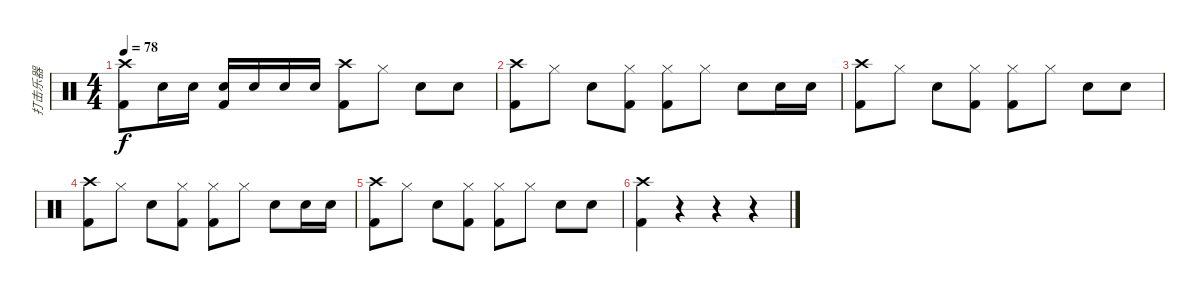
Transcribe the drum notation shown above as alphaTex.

\track ("打击乐器" "打击乐器") {instrument percussion}
\staff {score}
\articulation defaults
\ts (4 4)
\tempo 78
\clef neutral
\ks c
("Crash high (hit)" "Kick (hit) 2").8{dy f} "Snare (hit) 2".16 "Snare (hit) 2".16 ("Electric Snare (hit)" "Kick (hit) 2").16 "Electric Snare (hit)".16 "Electric Snare (hit)".16 "Electric Snare (hit)".16 ("Crash high (hit)" "Kick (hit) 2").8 "Hi-Hat (closed)".8 "Snare (hit) 2".8 "Snare (hit) 2".8 |
("Crash high (hit)" "Kick (hit) 2").8 "Hi-Hat (closed)".8 "Snare (hit) 2".8 ("Hi-Hat (closed)" "Kick (hit) 2").8 ("Hi-Hat (closed)" "Kick (hit) 2").8 "Hi-Hat (closed)".8 "Snare (hit) 2".8 "Snare (hit) 2".16 "Snare (hit) 2".16 |
("Crash high (hit)" "Kick (hit) 2").8 "Hi-Hat (closed)".8 "Snare (hit) 2".8 ("Hi-Hat (closed)" "Kick (hit) 2").8 ("Hi-Hat (closed)" "Kick (hit) 2").8 "Hi-Hat (closed)".8 "Snare (hit) 2".8 "Snare (hit) 2".8 |
("Crash high (hit)" "Kick (hit) 2").8 "Hi-Hat (closed)".8 "Snare (hit) 2".8 ("Hi-Hat (closed)" "Kick (hit) 2").8 ("Hi-Hat (closed)" "Kick (hit) 2").8 "Hi-Hat (closed)".8 "Snare (hit) 2".8 "Snare (hit) 2".16 "Snare (hit) 2".16 |
("Crash high (hit)" "Kick (hit) 2").8 "Hi-Hat (closed)".8 "Snare (hit) 2".8 ("Hi-Hat (closed)" "Kick (hit) 2").8 ("Hi-Hat (closed)" "Kick (hit) 2").8 "Hi-Hat (closed)".8 "Snare (hit) 2".8 "Snare (hit) 2".8 |
("Crash high (hit)" "Kick (hit) 2").4 r.4 r.4 r.4
